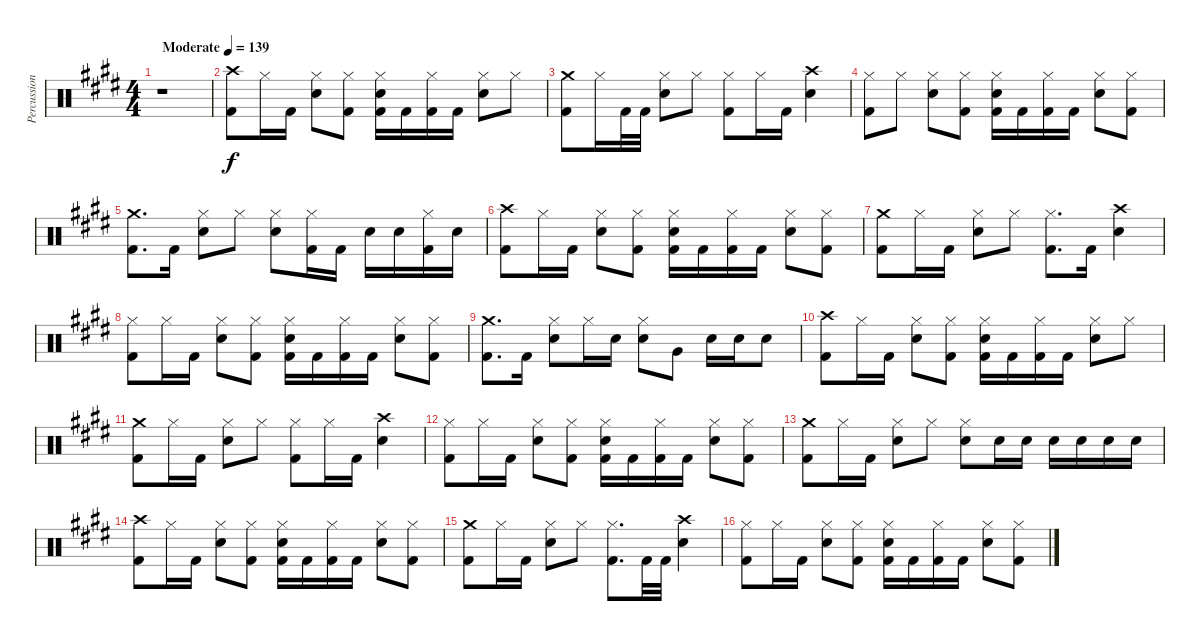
\track ("Percussion" "Percussion") {instrument percussion}
\staff {score}
\articulation defaults
\ts (4 4)
\tempo (139 "Moderate")
\clef neutral
\ks e
r.1{dy f} |
("Crash high (hit)" "Kick (hit) 2").8 "Hi-Hat (closed)".16 "Kick (hit) 2".16 ("Hi-Hat (closed)" "Snare (hit) 2").8 ("Hi-Hat (closed)" "Kick (hit) 2").8 ("Hi-Hat (closed)" "Snare (hit) 2" "Kick (hit) 2").16 "Kick (hit) 2".16 ("Hi-Hat (closed)" "Kick (hit) 2").16 "Kick (hit) 2".16 ("Hi-Hat (closed)" "Snare (hit) 2").8 "Hi-Hat (closed)".8 |
("Crash medium (hit)" "Kick (hit) 2").8 "Hi-Hat (closed)".16 "Kick (hit) 2".32 "Kick (hit) 2".32 ("Hi-Hat (closed)" "Snare (hit) 2").8 "Hi-Hat (closed)".8 ("Hi-Hat (closed)" "Kick (hit) 2").8 "Hi-Hat (closed)".16 "Kick (hit) 2".16 ("Crash high (hit)" "Snare (hit) 2").4 |
("Hi-Hat (closed)" "Kick (hit) 2").8 "Hi-Hat (closed)".8 ("Hi-Hat (closed)" "Snare (hit) 2").8 ("Hi-Hat (closed)" "Kick (hit) 2").8 ("Hi-Hat (closed)" "Snare (hit) 2" "Kick (hit) 2").16 "Kick (hit) 2".16 ("Hi-Hat (closed)" "Kick (hit) 2").16 "Kick (hit) 2".16 ("Hi-Hat (closed)" "Snare (hit) 2").8 ("Hi-Hat (closed)" "Kick (hit) 2").8 |
("Crash medium (hit)" "Kick (hit) 2").8{d} "Kick (hit) 2".16 ("Hi-Hat (closed)" "Snare (hit) 2").8 "Hi-Hat (closed)".8 ("Hi-Hat (closed)" "Snare (hit) 2").8 ("Hi-Hat (closed)" "Kick (hit) 2").16 "Kick (hit) 2".16 "Snare (hit) 2".16 "Snare (hit) 2".16 ("Hi-Hat (closed)" "Kick (hit) 2").16 "Snare (hit) 2".16 |
("Crash high (hit)" "Kick (hit) 2").8 "Hi-Hat (closed)".16 "Kick (hit) 2".16 ("Hi-Hat (closed)" "Snare (hit) 2").8 ("Hi-Hat (closed)" "Kick (hit) 2").8 ("Hi-Hat (closed)" "Snare (hit) 2" "Kick (hit) 2").16 "Kick (hit) 2".16 ("Hi-Hat (closed)" "Kick (hit) 2").16 "Kick (hit) 2".16 ("Hi-Hat (closed)" "Snare (hit) 2").8 ("Hi-Hat (closed)" "Kick (hit) 2").8 |
("Crash medium (hit)" "Kick (hit) 2").8 "Hi-Hat (closed)".16 "Kick (hit) 2".16 ("Hi-Hat (closed)" "Snare (hit) 2").8 "Hi-Hat (closed)".8 ("Hi-Hat (closed)" "Kick (hit) 2").8{d} "Kick (hit) 2".16 ("Crash high (hit)" "Snare (hit) 2").4 |
("Hi-Hat (closed)" "Kick (hit) 2").8 "Hi-Hat (closed)".16 "Kick (hit) 2".16 ("Hi-Hat (closed)" "Snare (hit) 2").8 ("Hi-Hat (closed)" "Kick (hit) 2").8 ("Hi-Hat (closed)" "Snare (hit) 2" "Kick (hit) 2").16 "Kick (hit) 2".16 ("Hi-Hat (closed)" "Kick (hit) 2").16 "Kick (hit) 2".16 ("Hi-Hat (closed)" "Snare (hit) 2").8 ("Hi-Hat (closed)" "Kick (hit) 2").8 |
("Crash medium (hit)" "Kick (hit) 2").8{d} "Kick (hit) 2".16 ("Hi-Hat (closed)" "Snare (hit) 2").8 "Hi-Hat (closed)".16 "Snare (hit) 2".16 ("Hi-Hat (closed)" "Snare (hit) 2").8 "Very Low Tom (hit)".8 "Snare (hit) 2".16 "Snare (hit) 2".16 "Snare (hit) 2".8 |
("Crash high (hit)" "Kick (hit) 2").8 "Hi-Hat (closed)".16 "Kick (hit) 2".16 ("Hi-Hat (closed)" "Snare (hit) 2").8 ("Hi-Hat (closed)" "Kick (hit) 2").8 ("Hi-Hat (closed)" "Snare (hit) 2" "Kick (hit) 2").16 "Kick (hit) 2".16 ("Hi-Hat (closed)" "Kick (hit) 2").16 "Kick (hit) 2".16 ("Hi-Hat (closed)" "Snare (hit) 2").8 "Hi-Hat (closed)".8 |
("Crash medium (hit)" "Kick (hit) 2").8 "Hi-Hat (closed)".16 "Kick (hit) 2".16 ("Hi-Hat (closed)" "Snare (hit) 2").8 "Hi-Hat (closed)".8 ("Hi-Hat (closed)" "Kick (hit) 2").8 "Hi-Hat (closed)".16 "Kick (hit) 2".16 ("Crash high (hit)" "Snare (hit) 2").4 |
("Hi-Hat (closed)" "Kick (hit) 2").8 "Hi-Hat (closed)".16 "Kick (hit) 2".16 ("Hi-Hat (closed)" "Snare (hit) 2").8 ("Hi-Hat (closed)" "Kick (hit) 2").8 ("Hi-Hat (closed)" "Snare (hit) 2" "Kick (hit) 2").16 "Kick (hit) 2".16 ("Hi-Hat (closed)" "Kick (hit) 2").16 "Kick (hit) 2".16 ("Hi-Hat (closed)" "Snare (hit) 2").8 ("Hi-Hat (closed)" "Kick (hit) 2").8 |
("Crash medium (hit)" "Kick (hit) 2").8 "Hi-Hat (closed)".16 "Kick (hit) 2".16 ("Hi-Hat (closed)" "Snare (hit) 2").8 "Hi-Hat (closed)".8 ("Hi-Hat (closed)" "Snare (hit) 2").8 "Snare (hit) 2".16 "Snare (hit) 2".16 "Snare (hit) 2".16 "Snare (hit) 2".16 "Snare (hit) 2".16 "Snare (hit) 2".16 |
("Crash high (hit)" "Kick (hit) 2").8 "Hi-Hat (closed)".16 "Kick (hit) 2".16 ("Hi-Hat (closed)" "Snare (hit) 2").8 ("Hi-Hat (closed)" "Kick (hit) 2").8 ("Hi-Hat (closed)" "Snare (hit) 2" "Kick (hit) 2").16 "Kick (hit) 2".16 ("Hi-Hat (closed)" "Kick (hit) 2").16 "Kick (hit) 2".16 ("Hi-Hat (closed)" "Snare (hit) 2").8 ("Hi-Hat (closed)" "Kick (hit) 2").8 |
("Crash medium (hit)" "Kick (hit) 2").8 "Hi-Hat (closed)".16 "Kick (hit) 2".16 ("Hi-Hat (closed)" "Snare (hit) 2").8 "Hi-Hat (closed)".8 ("Hi-Hat (closed)" "Kick (hit) 2").8{d} "Kick (hit) 2".32 "Kick (hit) 2".32 ("Crash high (hit)" "Snare (hit) 2").4 |
("Hi-Hat (closed)" "Kick (hit) 2").8 "Hi-Hat (closed)".16 "Kick (hit) 2".16 ("Hi-Hat (closed)" "Snare (hit) 2").8 ("Hi-Hat (closed)" "Kick (hit) 2").8 ("Hi-Hat (closed)" "Snare (hit) 2" "Kick (hit) 2").16 "Kick (hit) 2".16 ("Hi-Hat (closed)" "Kick (hit) 2").16 "Kick (hit) 2".16 ("Hi-Hat (closed)" "Snare (hit) 2").8 ("Hi-Hat (closed)" "Kick (hit) 2").8
